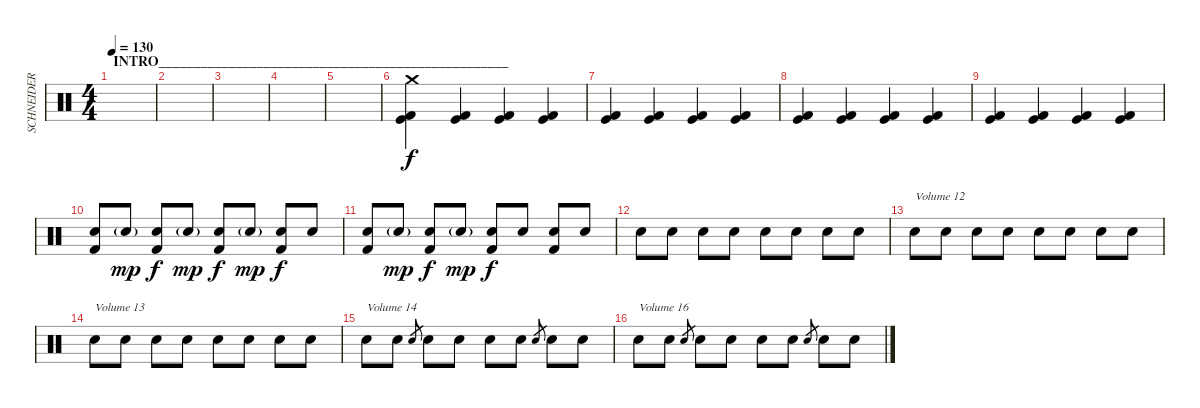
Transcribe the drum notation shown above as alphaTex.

\track ("SCHNEIDER - Drums" "SCHNEIDER ") {instrument percussion}
\staff {score}
\articulation defaults
\ts (4 4)
\section ("" "INTRO__________________________________________________")
\tempo 130
\clef neutral
\ks c
|
|
|
|
|
("Crash medium (hit)" "Kick (hit)" "Kick (hit) 2").4 ("Kick (hit)" "Kick (hit) 2").4 ("Kick (hit)" "Kick (hit) 2").4 ("Kick (hit)" "Kick (hit) 2").4 |
("Kick (hit)" "Kick (hit) 2").4 ("Kick (hit)" "Kick (hit) 2").4 ("Kick (hit)" "Kick (hit) 2").4 ("Kick (hit)" "Kick (hit) 2").4 |
("Kick (hit)" "Kick (hit) 2").4 ("Kick (hit)" "Kick (hit) 2").4 ("Kick (hit)" "Kick (hit) 2").4 ("Kick (hit)" "Kick (hit) 2").4 |
("Kick (hit)" "Kick (hit) 2").4 ("Kick (hit)" "Kick (hit) 2").4 ("Kick (hit)" "Kick (hit) 2").4 ("Kick (hit)" "Kick (hit) 2").4 |
("Snare (hit) 2" "Kick (hit) 2").8 "Snare (hit) 2"{g}.8{dy mp} ("Snare (hit) 2" "Kick (hit) 2").8{dy f} "Snare (hit) 2"{g}.8{dy mp} ("Snare (hit) 2" "Kick (hit) 2").8{dy f} "Snare (hit) 2"{g}.8{dy mp} ("Snare (hit) 2" "Kick (hit) 2").8{dy f} "Snare (hit) 2".8 |
("Snare (hit) 2" "Kick (hit) 2").8 "Snare (hit) 2"{g}.8{dy mp} ("Snare (hit) 2" "Kick (hit) 2").8{dy f} "Snare (hit) 2"{g}.8{dy mp} ("Snare (hit) 2" "Kick (hit) 2").8{dy f} "Snare (hit) 2".8 ("Snare (hit) 2" "Kick (hit) 2").8 "Snare (hit) 2".8 |
"Snare (hit) 2".8 "Snare (hit) 2".8 "Snare (hit) 2".8 "Snare (hit) 2".8 "Snare (hit) 2".8 "Snare (hit) 2".8 "Snare (hit) 2".8 "Snare (hit) 2".8 |
"Snare (hit) 2".8{txt "Volume 12" volume 12} "Snare (hit) 2".8 "Snare (hit) 2".8 "Snare (hit) 2".8 "Snare (hit) 2".8 "Snare (hit) 2".8 "Snare (hit) 2".8 "Snare (hit) 2".8 |
"Snare (hit) 2".8{txt "Volume 13" volume 13} "Snare (hit) 2".8 "Snare (hit) 2".8 "Snare (hit) 2".8 "Snare (hit) 2".8 "Snare (hit) 2".8 "Snare (hit) 2".8 "Snare (hit) 2".8 |
"Snare (hit) 2".8{txt "Volume 14" volume 14} "Snare (hit) 2".8 "Snare (hit) 2".8{gr} "Snare (hit) 2".8 "Snare (hit) 2".8 "Snare (hit) 2".8 "Snare (hit) 2".8 "Snare (hit) 2".8{gr} "Snare (hit) 2".8 "Snare (hit) 2".8 |
"Snare (hit) 2".8{txt "Volume 16" volume 16} "Snare (hit) 2".8 "Snare (hit) 2".8{gr} "Snare (hit) 2".8 "Snare (hit) 2".8 "Snare (hit) 2".8 "Snare (hit) 2".8 "Snare (hit) 2".8{gr} "Snare (hit) 2".8 "Snare (hit) 2".8
